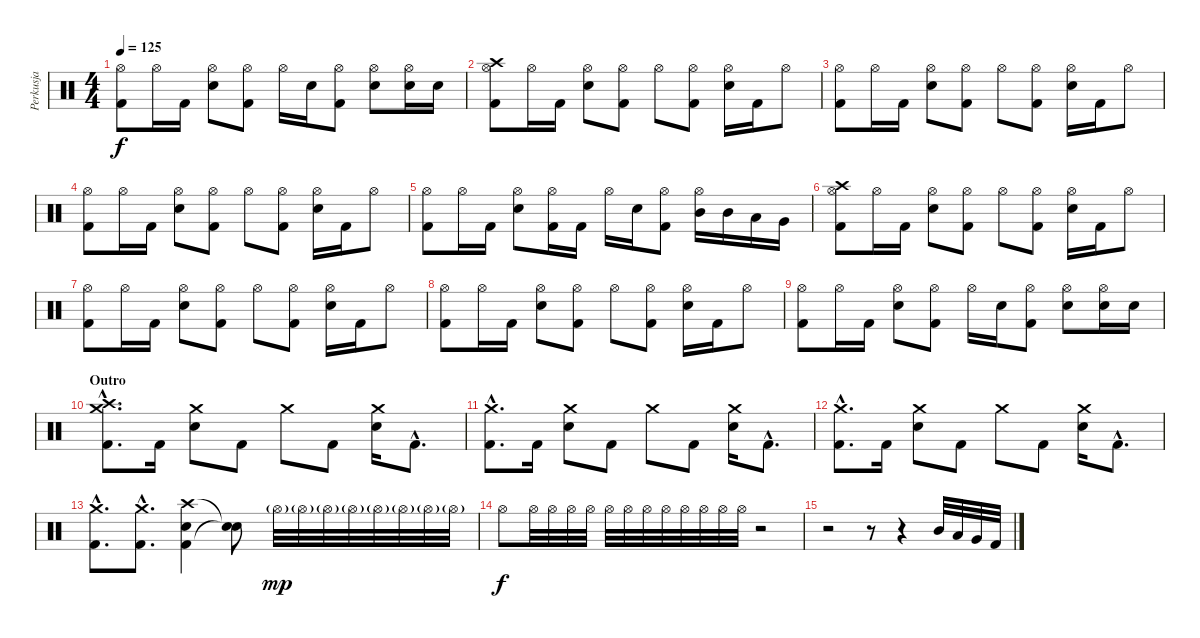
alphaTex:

\track ("Perkusja" "Perkusja") {instrument percussion}
\staff {score}
\articulation defaults
\ts (4 4)
\tempo 125
\clef neutral
\ks c
("Hi-Hat (open)" "Kick (hit) 2").8{dy f} "Hi-Hat (open)".16 "Kick (hit) 2".16 ("Hi-Hat (open)" "Electric Snare (hit)").8 ("Hi-Hat (open)" "Kick (hit) 2").8 "Hi-Hat (open)".16 "Electric Snare (hit)".16 ("Hi-Hat (open)" "Kick (hit) 2").8 ("Hi-Hat (open)" "Electric Snare (hit)").8 ("Hi-Hat (open)" "Electric Snare (hit)").16 "Electric Snare (hit)".16 |
("Hi-Hat (open)" "Kick (hit) 2" "Crash high (hit)").8 "Hi-Hat (open)".16 "Kick (hit) 2".16 ("Hi-Hat (open)" "Electric Snare (hit)").8 ("Hi-Hat (open)" "Kick (hit) 2").8 "Hi-Hat (open)".8 ("Hi-Hat (open)" "Kick (hit) 2").8 ("Hi-Hat (open)" "Electric Snare (hit)").16 "Kick (hit) 2".16 "Hi-Hat (open)".8 |
("Hi-Hat (open)" "Kick (hit) 2").8 "Hi-Hat (open)".16 "Kick (hit) 2".16 ("Hi-Hat (open)" "Electric Snare (hit)").8 ("Hi-Hat (open)" "Kick (hit) 2").8 "Hi-Hat (open)".8 ("Hi-Hat (open)" "Kick (hit) 2").8 ("Hi-Hat (open)" "Electric Snare (hit)").16 "Kick (hit) 2".16 "Hi-Hat (open)".8 |
("Hi-Hat (open)" "Kick (hit) 2").8 "Hi-Hat (open)".16 "Kick (hit) 2".16 ("Hi-Hat (open)" "Electric Snare (hit)").8 ("Hi-Hat (open)" "Kick (hit) 2").8 "Hi-Hat (open)".8 ("Hi-Hat (open)" "Kick (hit) 2").8 ("Hi-Hat (open)" "Electric Snare (hit)").16 "Kick (hit) 2".16 "Hi-Hat (open)".8 |
("Hi-Hat (open)" "Kick (hit) 2").8 "Hi-Hat (open)".16 "Kick (hit) 2".16 ("Hi-Hat (open)" "Electric Snare (hit)").8 ("Hi-Hat (open)" "Kick (hit) 2").16 "Kick (hit) 2".16 "Hi-Hat (open)".16 "Electric Snare (hit)".16 ("Hi-Hat (open)" "Kick (hit) 2").8 ("Hi-Hat (open)" "Mid Tom (hit)").16 "Mid Tom (hit)".16 "Low Tom (hit)".16 "Very Low Tom (hit)".16 |
("Hi-Hat (open)" "Kick (hit) 2" "Crash high (hit)").8 "Hi-Hat (open)".16 "Kick (hit) 2".16 ("Hi-Hat (open)" "Electric Snare (hit)").8 ("Hi-Hat (open)" "Kick (hit) 2").8 "Hi-Hat (open)".8 ("Hi-Hat (open)" "Kick (hit) 2").8 ("Hi-Hat (open)" "Electric Snare (hit)").16 "Kick (hit) 2".16 "Hi-Hat (open)".8 |
("Hi-Hat (open)" "Kick (hit) 2").8 "Hi-Hat (open)".16 "Kick (hit) 2".16 ("Hi-Hat (open)" "Electric Snare (hit)").8 ("Hi-Hat (open)" "Kick (hit) 2").8 "Hi-Hat (open)".8 ("Hi-Hat (open)" "Kick (hit) 2").8 ("Hi-Hat (open)" "Electric Snare (hit)").16 "Kick (hit) 2".16 "Hi-Hat (open)".8 |
("Hi-Hat (open)" "Kick (hit) 2").8 "Hi-Hat (open)".16 "Kick (hit) 2".16 ("Hi-Hat (open)" "Electric Snare (hit)").8 ("Hi-Hat (open)" "Kick (hit) 2").8 "Hi-Hat (open)".8 ("Hi-Hat (open)" "Kick (hit) 2").8 ("Hi-Hat (open)" "Electric Snare (hit)").16 "Kick (hit) 2".16 "Hi-Hat (open)".8 |
("Hi-Hat (open)" "Kick (hit) 2").8 "Hi-Hat (open)".16 "Kick (hit) 2".16 ("Hi-Hat (open)" "Electric Snare (hit)").8 ("Hi-Hat (open)" "Kick (hit) 2").8 "Hi-Hat (open)".16 "Electric Snare (hit)".16 ("Hi-Hat (open)" "Kick (hit) 2").8 ("Hi-Hat (open)" "Electric Snare (hit)").8 ("Hi-Hat (open)" "Electric Snare (hit)").16 "Electric Snare (hit)".16 |
\section ("" "Outro")
("Crash medium (hit)"{hac} "Kick (hit) 2"{hac} "Crash high (hit)"{hac}).8{d} "Kick (hit) 2".16 ("Crash medium (hit)" "Electric Snare (hit)").8 "Kick (hit) 2".8 "Crash medium (hit)".8 "Kick (hit) 2".8 ("Crash medium (hit)" "Electric Snare (hit)").16 "Kick (hit) 2"{hac}.8{d} |
("Crash medium (hit)"{hac} "Kick (hit) 2"{hac}).8{d} "Kick (hit) 2".16 ("Crash medium (hit)" "Electric Snare (hit)").8 "Kick (hit) 2".8 "Crash medium (hit)".8 "Kick (hit) 2".8 ("Crash medium (hit)" "Electric Snare (hit)").16 "Kick (hit) 2"{hac}.8{d} |
("Crash medium (hit)"{hac} "Kick (hit) 2"{hac}).8{d} "Kick (hit) 2".16 ("Crash medium (hit)" "Electric Snare (hit)").8 "Kick (hit) 2".8 "Crash medium (hit)".8 "Kick (hit) 2".8 ("Crash medium (hit)" "Electric Snare (hit)").16 "Kick (hit) 2"{hac}.8{d} |
("Kick (hit) 2"{hac} "Crash medium (hit)"{hac}).8{d} ("Kick (hit) 2"{hac} "Crash medium (hit)"{hac}).8{d} ("Kick (hit) 2" "Crash high (hit)" "Electric Snare (hit)").4 ("Snare (hit)"{t} "Snare (hit)"{t}).8{volume 0} "Hi-Hat (open)"{g}.32{dy mp volume 16} "Hi-Hat (open)"{g}.32 "Hi-Hat (open)"{g}.32 "Hi-Hat (open)"{g}.32 "Hi-Hat (open)"{g}.32 "Hi-Hat (open)"{g}.32 "Hi-Hat (open)"{g}.32 "Hi-Hat (open)"{g}.32 |
"Hi-Hat (open)".8{dy f} "Hi-Hat (open)".32{volume 13} "Hi-Hat (open)".32{volume 0} "Hi-Hat (open)".32 "Hi-Hat (open)".32 "Hi-Hat (open)".32 "Hi-Hat (open)".32 "Hi-Hat (open)".32 "Hi-Hat (open)".32 "Hi-Hat (open)".32 "Hi-Hat (open)".32 "Hi-Hat (open)".32 "Hi-Hat (open)".32 r.2 |
r.2 r.8 r.4{volume 12} "Mid Tom (hit)".32 "Low Tom (hit)".32 "Very Low Tom (hit)".32 "Kick (hit) 2".32
